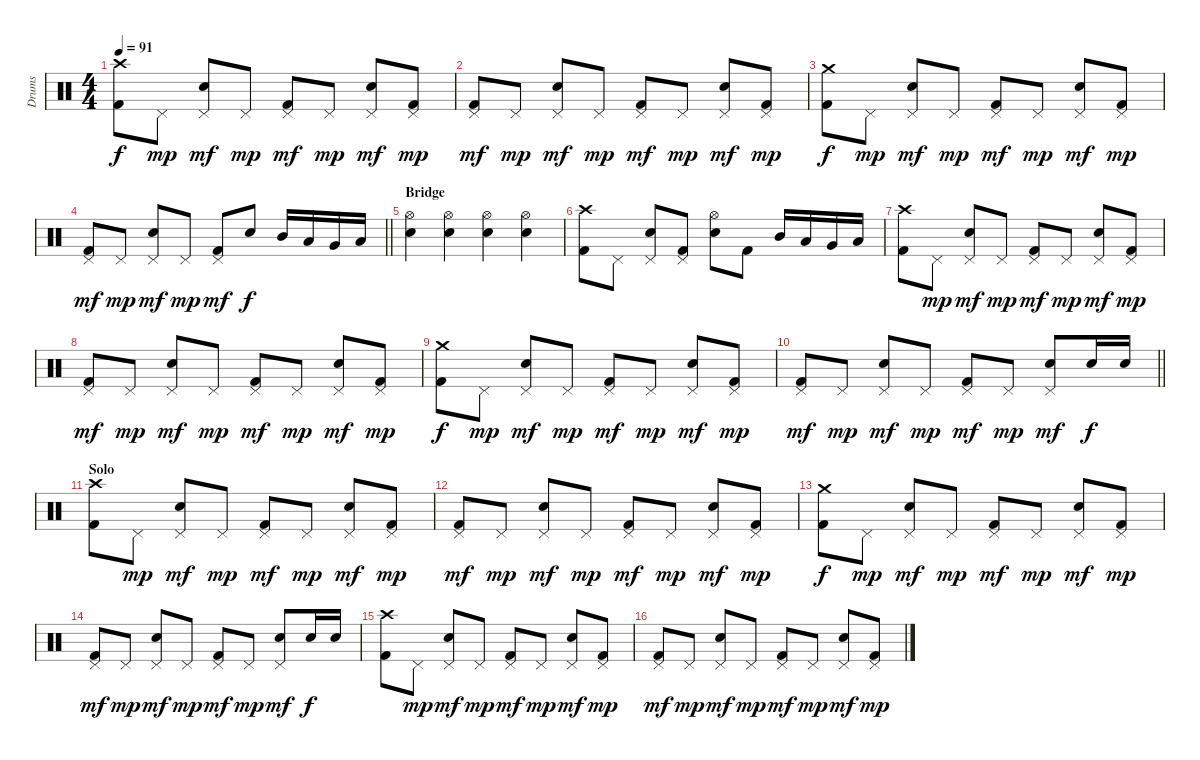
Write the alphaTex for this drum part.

\track ("Drums" "Drums") {instrument percussion}
\staff {score}
\articulation defaults
\ts (4 4)
\tempo 91
\clef neutral
\ks c
("Crash high (hit)" "Kick (hit) 2").8{dy f} "Pedal Hi-Hat (hit)".8{dy mp} ("Pedal Hi-Hat (hit)" "Snare (hit) 2").8{dy mf} "Pedal Hi-Hat (hit)".8{dy mp} ("Pedal Hi-Hat (hit)" "Kick (hit) 2").8{dy mf} "Pedal Hi-Hat (hit)".8{dy mp} ("Pedal Hi-Hat (hit)" "Snare (hit) 2").8{dy mf} ("Pedal Hi-Hat (hit)" "Kick (hit) 2").8{dy mp} |
("Pedal Hi-Hat (hit)" "Kick (hit) 2").8{dy mf} "Pedal Hi-Hat (hit)".8{dy mp} ("Pedal Hi-Hat (hit)" "Snare (hit) 2").8{dy mf} "Pedal Hi-Hat (hit)".8{dy mp} ("Pedal Hi-Hat (hit)" "Kick (hit) 2").8{dy mf} "Pedal Hi-Hat (hit)".8{dy mp} ("Pedal Hi-Hat (hit)" "Snare (hit) 2").8{dy mf} ("Pedal Hi-Hat (hit)" "Kick (hit) 2").8{dy mp} |
("Crash medium (hit)" "Kick (hit) 2").8{dy f} "Pedal Hi-Hat (hit)".8{dy mp} ("Pedal Hi-Hat (hit)" "Snare (hit) 2").8{dy mf} "Pedal Hi-Hat (hit)".8{dy mp} ("Pedal Hi-Hat (hit)" "Kick (hit) 2").8{dy mf} "Pedal Hi-Hat (hit)".8{dy mp} ("Pedal Hi-Hat (hit)" "Snare (hit) 2").8{dy mf} ("Pedal Hi-Hat (hit)" "Kick (hit) 2").8{dy mp} |
\barLineRight lightlight
("Pedal Hi-Hat (hit)" "Kick (hit) 2").8{dy mf} "Pedal Hi-Hat (hit)".8{dy mp} ("Pedal Hi-Hat (hit)" "Snare (hit) 2").8{dy mf} "Pedal Hi-Hat (hit)".8{dy mp} ("Pedal Hi-Hat (hit)" "Kick (hit) 2").8{dy mf} "Snare (hit) 2".8{dy f} "Mid Tom (hit)".16 "Low Tom (hit)".16 "Very Low Tom (hit)".16 "Low Floor Tom (hit)".16 |
\section ("" "Bridge")
("Hi-Hat (open)" "Snare (hit) 2").4 ("Hi-Hat (open)" "Snare (hit) 2").4 ("Hi-Hat (open)" "Snare (hit) 2").4 ("Hi-Hat (open)" "Snare (hit) 2").4 |
("Crash high (hit)" "Kick (hit) 2").8 "Pedal Hi-Hat (hit)".8 ("Pedal Hi-Hat (hit)" "Snare (hit) 2").8 ("Pedal Hi-Hat (hit)" "Kick (hit) 2").8 ("Hi-Hat (open)" "Snare (hit) 2").8 "Kick (hit) 2".8 "Mid Tom (hit)".16 "Low Tom (hit)".16 "Very Low Tom (hit)".16 "Low Floor Tom (hit)".16 |
("Crash high (hit)" "Kick (hit) 2").8 "Pedal Hi-Hat (hit)".8{dy mp} ("Pedal Hi-Hat (hit)" "Snare (hit) 2").8{dy mf} "Pedal Hi-Hat (hit)".8{dy mp} ("Pedal Hi-Hat (hit)" "Kick (hit) 2").8{dy mf} "Pedal Hi-Hat (hit)".8{dy mp} ("Pedal Hi-Hat (hit)" "Snare (hit) 2").8{dy mf} ("Pedal Hi-Hat (hit)" "Kick (hit) 2").8{dy mp} |
("Pedal Hi-Hat (hit)" "Kick (hit) 2").8{dy mf} "Pedal Hi-Hat (hit)".8{dy mp} ("Pedal Hi-Hat (hit)" "Snare (hit) 2").8{dy mf} "Pedal Hi-Hat (hit)".8{dy mp} ("Pedal Hi-Hat (hit)" "Kick (hit) 2").8{dy mf} "Pedal Hi-Hat (hit)".8{dy mp} ("Pedal Hi-Hat (hit)" "Snare (hit) 2").8{dy mf} ("Pedal Hi-Hat (hit)" "Kick (hit) 2").8{dy mp} |
("Crash medium (hit)" "Kick (hit) 2").8{dy f} "Pedal Hi-Hat (hit)".8{dy mp} ("Pedal Hi-Hat (hit)" "Snare (hit) 2").8{dy mf} "Pedal Hi-Hat (hit)".8{dy mp} ("Pedal Hi-Hat (hit)" "Kick (hit) 2").8{dy mf} "Pedal Hi-Hat (hit)".8{dy mp} ("Pedal Hi-Hat (hit)" "Snare (hit) 2").8{dy mf} ("Pedal Hi-Hat (hit)" "Kick (hit) 2").8{dy mp} |
\barLineRight lightlight
("Pedal Hi-Hat (hit)" "Kick (hit) 2").8{dy mf} "Pedal Hi-Hat (hit)".8{dy mp} ("Pedal Hi-Hat (hit)" "Snare (hit) 2").8{dy mf} "Pedal Hi-Hat (hit)".8{dy mp} ("Pedal Hi-Hat (hit)" "Kick (hit) 2").8{dy mf} "Pedal Hi-Hat (hit)".8{dy mp} ("Pedal Hi-Hat (hit)" "Snare (hit) 2").8{dy mf} "Snare (hit) 2".16{dy f} "Snare (hit) 2".16 |
\section ("" "Solo")
("Crash high (hit)" "Kick (hit) 2").8 "Pedal Hi-Hat (hit)".8{dy mp} ("Pedal Hi-Hat (hit)" "Snare (hit) 2").8{dy mf} "Pedal Hi-Hat (hit)".8{dy mp} ("Pedal Hi-Hat (hit)" "Kick (hit) 2").8{dy mf} "Pedal Hi-Hat (hit)".8{dy mp} ("Pedal Hi-Hat (hit)" "Snare (hit) 2").8{dy mf} ("Pedal Hi-Hat (hit)" "Kick (hit) 2").8{dy mp} |
("Pedal Hi-Hat (hit)" "Kick (hit) 2").8{dy mf} "Pedal Hi-Hat (hit)".8{dy mp} ("Pedal Hi-Hat (hit)" "Snare (hit) 2").8{dy mf} "Pedal Hi-Hat (hit)".8{dy mp} ("Pedal Hi-Hat (hit)" "Kick (hit) 2").8{dy mf} "Pedal Hi-Hat (hit)".8{dy mp} ("Pedal Hi-Hat (hit)" "Snare (hit) 2").8{dy mf} ("Pedal Hi-Hat (hit)" "Kick (hit) 2").8{dy mp} |
("Crash medium (hit)" "Kick (hit) 2").8{dy f} "Pedal Hi-Hat (hit)".8{dy mp} ("Pedal Hi-Hat (hit)" "Snare (hit) 2").8{dy mf} "Pedal Hi-Hat (hit)".8{dy mp} ("Pedal Hi-Hat (hit)" "Kick (hit) 2").8{dy mf} "Pedal Hi-Hat (hit)".8{dy mp} ("Pedal Hi-Hat (hit)" "Snare (hit) 2").8{dy mf} ("Pedal Hi-Hat (hit)" "Kick (hit) 2").8{dy mp} |
("Pedal Hi-Hat (hit)" "Kick (hit) 2").8{dy mf} "Pedal Hi-Hat (hit)".8{dy mp} ("Pedal Hi-Hat (hit)" "Snare (hit) 2").8{dy mf} "Pedal Hi-Hat (hit)".8{dy mp} ("Pedal Hi-Hat (hit)" "Kick (hit) 2").8{dy mf} "Pedal Hi-Hat (hit)".8{dy mp} ("Pedal Hi-Hat (hit)" "Snare (hit) 2").8{dy mf} "Snare (hit) 2".16{dy f} "Snare (hit) 2".16 |
("Crash high (hit)" "Kick (hit) 2").8 "Pedal Hi-Hat (hit)".8{dy mp} ("Pedal Hi-Hat (hit)" "Snare (hit) 2").8{dy mf} "Pedal Hi-Hat (hit)".8{dy mp} ("Pedal Hi-Hat (hit)" "Kick (hit) 2").8{dy mf} "Pedal Hi-Hat (hit)".8{dy mp} ("Pedal Hi-Hat (hit)" "Snare (hit) 2").8{dy mf} ("Pedal Hi-Hat (hit)" "Kick (hit) 2").8{dy mp} |
("Pedal Hi-Hat (hit)" "Kick (hit) 2").8{dy mf} "Pedal Hi-Hat (hit)".8{dy mp} ("Pedal Hi-Hat (hit)" "Snare (hit) 2").8{dy mf} "Pedal Hi-Hat (hit)".8{dy mp} ("Pedal Hi-Hat (hit)" "Kick (hit) 2").8{dy mf} "Pedal Hi-Hat (hit)".8{dy mp} ("Pedal Hi-Hat (hit)" "Snare (hit) 2").8{dy mf} ("Pedal Hi-Hat (hit)" "Kick (hit) 2").8{dy mp}
